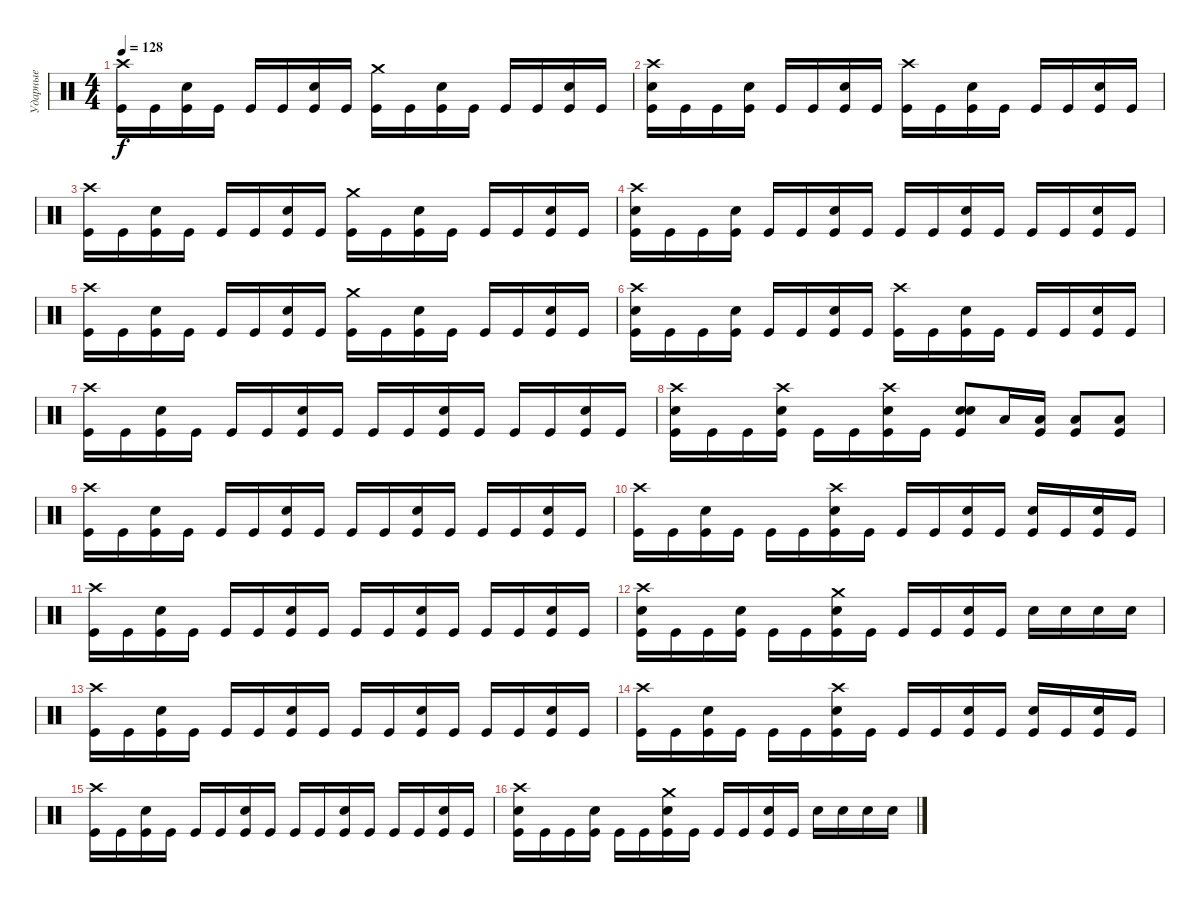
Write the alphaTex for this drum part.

\track ("Ударные" "Ударные") {instrument percussion}
\staff {score}
\articulation defaults
\ts (4 4)
\tempo 128
\clef neutral
\ks c
("Crash high (hit)" "Kick (hit)").16{dy f} "Kick (hit)".16 ("Electric Snare (hit)" "Kick (hit)").16 "Kick (hit)".16 "Kick (hit)".16 "Kick (hit)".16 ("Electric Snare (hit)" "Kick (hit)").16 "Kick (hit)".16 ("Crash medium (hit)" "Kick (hit)").16 "Kick (hit)".16 ("Electric Snare (hit)" "Kick (hit)").16 "Kick (hit)".16 "Kick (hit)".16 "Kick (hit)".16 ("Electric Snare (hit)" "Kick (hit)").16 "Kick (hit)".16 |
("Crash high (hit)" "Electric Snare (hit)" "Kick (hit)").16 "Kick (hit)".16 "Kick (hit)".16 ("Electric Snare (hit)" "Kick (hit)").16 "Kick (hit)".16 "Kick (hit)".16 ("Electric Snare (hit)" "Kick (hit)").16 "Kick (hit)".16 ("Crash high (hit)" "Kick (hit)").16 "Kick (hit)".16 ("Electric Snare (hit)" "Kick (hit)").16 "Kick (hit)".16 "Kick (hit)".16 "Kick (hit)".16 ("Electric Snare (hit)" "Kick (hit)").16 "Kick (hit)".16 |
("Crash high (hit)" "Kick (hit)").16 "Kick (hit)".16 ("Electric Snare (hit)" "Kick (hit)").16 "Kick (hit)".16 "Kick (hit)".16 "Kick (hit)".16 ("Electric Snare (hit)" "Kick (hit)").16 "Kick (hit)".16 ("Crash medium (hit)" "Kick (hit)").16 "Kick (hit)".16 ("Electric Snare (hit)" "Kick (hit)").16 "Kick (hit)".16 "Kick (hit)".16 "Kick (hit)".16 ("Electric Snare (hit)" "Kick (hit)").16 "Kick (hit)".16 |
("Crash high (hit)" "Electric Snare (hit)" "Kick (hit)").16 "Kick (hit)".16 "Kick (hit)".16 ("Electric Snare (hit)" "Kick (hit)").16 "Kick (hit)".16 "Kick (hit)".16 ("Electric Snare (hit)" "Kick (hit)").16 "Kick (hit)".16 "Kick (hit)".16 "Kick (hit)".16 ("Electric Snare (hit)" "Kick (hit)").16 "Kick (hit)".16 "Kick (hit)".16 "Kick (hit)".16 ("Electric Snare (hit)" "Kick (hit)").16 "Kick (hit)".16 |
("Crash high (hit)" "Kick (hit)").16 "Kick (hit)".16 ("Electric Snare (hit)" "Kick (hit)").16 "Kick (hit)".16 "Kick (hit)".16 "Kick (hit)".16 ("Electric Snare (hit)" "Kick (hit)").16 "Kick (hit)".16 ("Crash medium (hit)" "Kick (hit)").16 "Kick (hit)".16 ("Electric Snare (hit)" "Kick (hit)").16 "Kick (hit)".16 "Kick (hit)".16 "Kick (hit)".16 ("Electric Snare (hit)" "Kick (hit)").16 "Kick (hit)".16 |
("Crash high (hit)" "Electric Snare (hit)" "Kick (hit)").16 "Kick (hit)".16 "Kick (hit)".16 ("Electric Snare (hit)" "Kick (hit)").16 "Kick (hit)".16 "Kick (hit)".16 ("Electric Snare (hit)" "Kick (hit)").16 "Kick (hit)".16 ("Crash high (hit)" "Kick (hit)").16 "Kick (hit)".16 ("Electric Snare (hit)" "Kick (hit)").16 "Kick (hit)".16 "Kick (hit)".16 "Kick (hit)".16 ("Electric Snare (hit)" "Kick (hit)").16 "Kick (hit)".16 |
("Crash high (hit)" "Kick (hit)").16 "Kick (hit)".16 ("Electric Snare (hit)" "Kick (hit)").16 "Kick (hit)".16 "Kick (hit)".16 "Kick (hit)".16 ("Electric Snare (hit)" "Kick (hit)").16 "Kick (hit)".16 "Kick (hit)".16 "Kick (hit)".16 ("Electric Snare (hit)" "Kick (hit)").16 "Kick (hit)".16 "Kick (hit)".16 "Kick (hit)".16 ("Electric Snare (hit)" "Kick (hit)").16 "Kick (hit)".16 |
("Crash high (hit)" "Electric Snare (hit)" "Kick (hit)").16 "Kick (hit)".16 "Kick (hit)".16 ("Crash high (hit)" "Electric Snare (hit)" "Kick (hit)").16 "Kick (hit)".16 "Kick (hit)".16 ("Crash high (hit)" "Electric Snare (hit)" "Kick (hit)").16 "Kick (hit)".16 ("Electric Snare (hit)" "Electric Snare (hit)" "Kick (hit)").8 "Low Tom (hit)".16 ("Low Tom (hit)" "Kick (hit)").16 ("Low Tom (hit)" "Kick (hit)").8 ("Low Tom (hit)" "Kick (hit)").8 |
("Crash high (hit)" "Kick (hit)").16 "Kick (hit)".16 ("Electric Snare (hit)" "Kick (hit)").16 "Kick (hit)".16 "Kick (hit)".16 "Kick (hit)".16 ("Electric Snare (hit)" "Kick (hit)").16 "Kick (hit)".16 "Kick (hit)".16 "Kick (hit)".16 ("Electric Snare (hit)" "Kick (hit)").16 "Kick (hit)".16 "Kick (hit)".16 "Kick (hit)".16 ("Electric Snare (hit)" "Kick (hit)").16 "Kick (hit)".16 |
("Crash high (hit)" "Kick (hit)").16 "Kick (hit)".16 ("Electric Snare (hit)" "Kick (hit)").16 "Kick (hit)".16 "Kick (hit)".16 "Kick (hit)".16 ("Crash high (hit)" "Electric Snare (hit)" "Kick (hit)").16 "Kick (hit)".16 "Kick (hit)".16 "Kick (hit)".16 ("Electric Snare (hit)" "Kick (hit)").16 "Kick (hit)".16 ("Electric Snare (hit)" "Kick (hit)").16 "Kick (hit)".16 ("Electric Snare (hit)" "Kick (hit)").16 "Kick (hit)".16 |
("Crash high (hit)" "Kick (hit)").16 "Kick (hit)".16 ("Electric Snare (hit)" "Kick (hit)").16 "Kick (hit)".16 "Kick (hit)".16 "Kick (hit)".16 ("Electric Snare (hit)" "Kick (hit)").16 "Kick (hit)".16 "Kick (hit)".16 "Kick (hit)".16 ("Electric Snare (hit)" "Kick (hit)").16 "Kick (hit)".16 "Kick (hit)".16 "Kick (hit)".16 ("Electric Snare (hit)" "Kick (hit)").16 "Kick (hit)".16 |
("Crash high (hit)" "Electric Snare (hit)" "Kick (hit)").16 "Kick (hit)".16 "Kick (hit)".16 ("Electric Snare (hit)" "Kick (hit)").16 "Kick (hit)".16 "Kick (hit)".16 ("Crash medium (hit)" "Electric Snare (hit)" "Kick (hit)").16 "Kick (hit)".16 "Kick (hit)".16 "Kick (hit)".16 ("Electric Snare (hit)" "Kick (hit)").16 "Kick (hit)".16 "Electric Snare (hit)".16 "Electric Snare (hit)".16 "Electric Snare (hit)".16 "Electric Snare (hit)".16 |
("Crash high (hit)" "Kick (hit)").16 "Kick (hit)".16 ("Electric Snare (hit)" "Kick (hit)").16 "Kick (hit)".16 "Kick (hit)".16 "Kick (hit)".16 ("Electric Snare (hit)" "Kick (hit)").16 "Kick (hit)".16 "Kick (hit)".16 "Kick (hit)".16 ("Electric Snare (hit)" "Kick (hit)").16 "Kick (hit)".16 "Kick (hit)".16 "Kick (hit)".16 ("Electric Snare (hit)" "Kick (hit)").16 "Kick (hit)".16 |
("Crash high (hit)" "Kick (hit)").16 "Kick (hit)".16 ("Electric Snare (hit)" "Kick (hit)").16 "Kick (hit)".16 "Kick (hit)".16 "Kick (hit)".16 ("Crash high (hit)" "Electric Snare (hit)" "Kick (hit)").16 "Kick (hit)".16 "Kick (hit)".16 "Kick (hit)".16 ("Electric Snare (hit)" "Kick (hit)").16 "Kick (hit)".16 ("Electric Snare (hit)" "Kick (hit)").16 "Kick (hit)".16 ("Electric Snare (hit)" "Kick (hit)").16 "Kick (hit)".16 |
("Crash high (hit)" "Kick (hit)").16 "Kick (hit)".16 ("Electric Snare (hit)" "Kick (hit)").16 "Kick (hit)".16 "Kick (hit)".16 "Kick (hit)".16 ("Electric Snare (hit)" "Kick (hit)").16 "Kick (hit)".16 "Kick (hit)".16 "Kick (hit)".16 ("Electric Snare (hit)" "Kick (hit)").16 "Kick (hit)".16 "Kick (hit)".16 "Kick (hit)".16 ("Electric Snare (hit)" "Kick (hit)").16 "Kick (hit)".16 |
("Crash high (hit)" "Electric Snare (hit)" "Kick (hit)").16 "Kick (hit)".16 "Kick (hit)".16 ("Electric Snare (hit)" "Kick (hit)").16 "Kick (hit)".16 "Kick (hit)".16 ("Crash medium (hit)" "Electric Snare (hit)" "Kick (hit)").16 "Kick (hit)".16 "Kick (hit)".16 "Kick (hit)".16 ("Electric Snare (hit)" "Kick (hit)").16 "Kick (hit)".16 "Electric Snare (hit)".16 "Electric Snare (hit)".16 "Electric Snare (hit)".16 "Electric Snare (hit)".16
